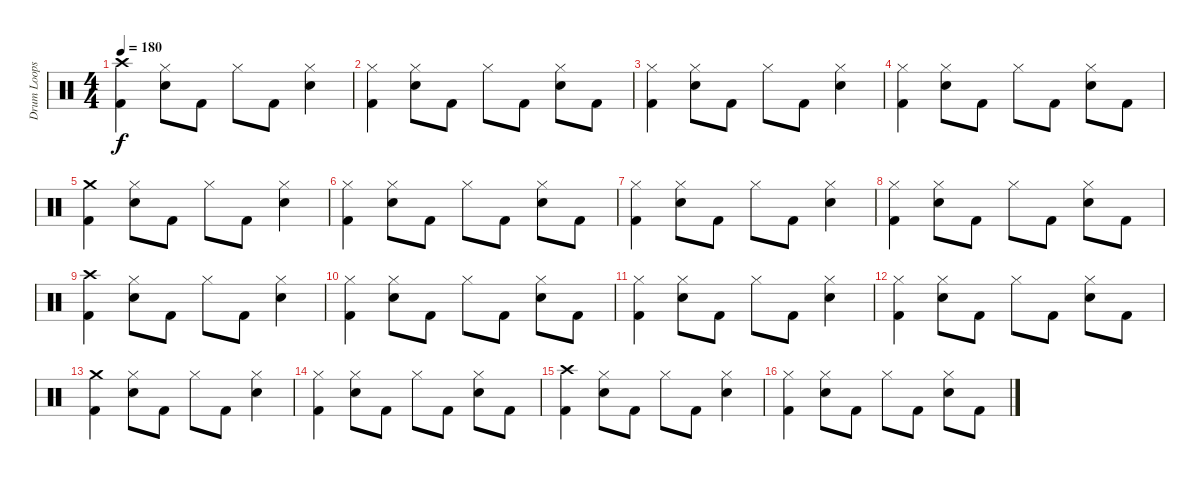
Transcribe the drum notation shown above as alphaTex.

\track ("Drum Loops (Дурачок)" "Drum Loops") {instrument percussion}
\staff {score}
\articulation defaults
\ts (4 4)
\tempo 180
\clef neutral
\ks c
("Kick (hit) 2" "Crash high (hit)").4{dy f} ("Snare (hit) 2" "Hi-Hat (closed)").8 "Kick (hit) 2".8 "Hi-Hat (closed)".8 "Kick (hit) 2".8 ("Snare (hit) 2" "Hi-Hat (closed)").4 |
("Kick (hit) 2" "Hi-Hat (closed)").4 ("Snare (hit) 2" "Hi-Hat (closed)").8 "Kick (hit) 2".8 "Hi-Hat (closed)".8 "Kick (hit) 2".8 ("Snare (hit) 2" "Hi-Hat (closed)").8 "Kick (hit) 2".8 |
("Kick (hit) 2" "Hi-Hat (closed)").4 ("Snare (hit) 2" "Hi-Hat (closed)").8 "Kick (hit) 2".8 "Hi-Hat (closed)".8 "Kick (hit) 2".8 ("Snare (hit) 2" "Hi-Hat (closed)").4 |
("Kick (hit) 2" "Hi-Hat (closed)").4 ("Snare (hit) 2" "Hi-Hat (closed)").8 "Kick (hit) 2".8 "Hi-Hat (closed)".8 "Kick (hit) 2".8 ("Snare (hit) 2" "Hi-Hat (closed)").8 "Kick (hit) 2".8 |
("Kick (hit) 2" "Crash medium (hit)").4 ("Snare (hit) 2" "Hi-Hat (closed)").8 "Kick (hit) 2".8 "Hi-Hat (closed)".8 "Kick (hit) 2".8 ("Snare (hit) 2" "Hi-Hat (closed)").4 |
("Kick (hit) 2" "Hi-Hat (closed)").4 ("Snare (hit) 2" "Hi-Hat (closed)").8 "Kick (hit) 2".8 "Hi-Hat (closed)".8 "Kick (hit) 2".8 ("Snare (hit) 2" "Hi-Hat (closed)").8 "Kick (hit) 2".8 |
("Kick (hit) 2" "Hi-Hat (closed)").4 ("Snare (hit) 2" "Hi-Hat (closed)").8 "Kick (hit) 2".8 "Hi-Hat (closed)".8 "Kick (hit) 2".8 ("Snare (hit) 2" "Hi-Hat (closed)").4 |
("Kick (hit) 2" "Hi-Hat (closed)").4 ("Snare (hit) 2" "Hi-Hat (closed)").8 "Kick (hit) 2".8 "Hi-Hat (closed)".8 "Kick (hit) 2".8 ("Snare (hit) 2" "Hi-Hat (closed)").8 "Kick (hit) 2".8 |
("Kick (hit) 2" "Crash high (hit)").4 ("Snare (hit) 2" "Hi-Hat (closed)").8 "Kick (hit) 2".8 "Hi-Hat (closed)".8 "Kick (hit) 2".8 ("Snare (hit) 2" "Hi-Hat (closed)").4 |
("Kick (hit) 2" "Hi-Hat (closed)").4 ("Snare (hit) 2" "Hi-Hat (closed)").8 "Kick (hit) 2".8 "Hi-Hat (closed)".8 "Kick (hit) 2".8 ("Snare (hit) 2" "Hi-Hat (closed)").8 "Kick (hit) 2".8 |
("Kick (hit) 2" "Hi-Hat (closed)").4 ("Snare (hit) 2" "Hi-Hat (closed)").8 "Kick (hit) 2".8 "Hi-Hat (closed)".8 "Kick (hit) 2".8 ("Snare (hit) 2" "Hi-Hat (closed)").4 |
("Kick (hit) 2" "Hi-Hat (closed)").4 ("Snare (hit) 2" "Hi-Hat (closed)").8 "Kick (hit) 2".8 "Hi-Hat (closed)".8 "Kick (hit) 2".8 ("Snare (hit) 2" "Hi-Hat (closed)").8 "Kick (hit) 2".8 |
("Kick (hit) 2" "Crash medium (hit)").4 ("Snare (hit) 2" "Hi-Hat (closed)").8 "Kick (hit) 2".8 "Hi-Hat (closed)".8 "Kick (hit) 2".8 ("Snare (hit) 2" "Hi-Hat (closed)").4 |
("Kick (hit) 2" "Hi-Hat (closed)").4 ("Snare (hit) 2" "Hi-Hat (closed)").8 "Kick (hit) 2".8 "Hi-Hat (closed)".8 "Kick (hit) 2".8 ("Snare (hit) 2" "Hi-Hat (closed)").8 "Kick (hit) 2".8 |
("Kick (hit) 2" "Crash high (hit)").4 ("Snare (hit) 2" "Hi-Hat (closed)").8 "Kick (hit) 2".8 "Hi-Hat (closed)".8 "Kick (hit) 2".8 ("Snare (hit) 2" "Hi-Hat (closed)").4 |
("Kick (hit) 2" "Hi-Hat (closed)").4 ("Snare (hit) 2" "Hi-Hat (closed)").8 "Kick (hit) 2".8 "Hi-Hat (closed)".8 "Kick (hit) 2".8 ("Snare (hit) 2" "Hi-Hat (closed)").8 "Kick (hit) 2".8
